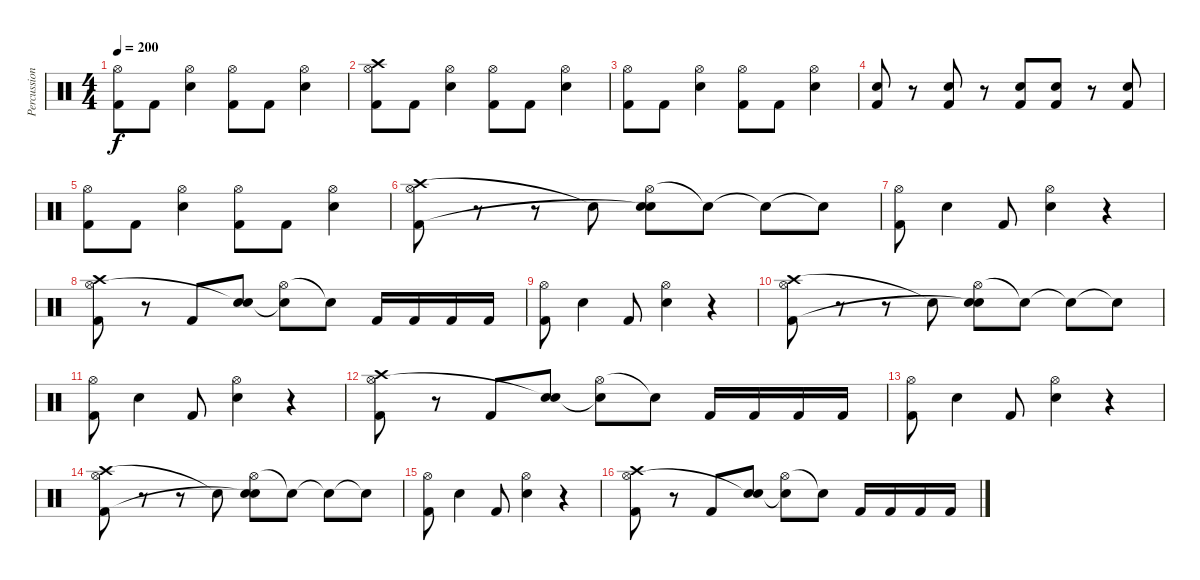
\track ("Percussion" "Percussion") {instrument percussion}
\staff {score}
\articulation defaults
\ts (4 4)
\tempo 200
\clef neutral
\ks c
("Hi-Hat (open)" "Kick (hit) 2").8{dy f} "Kick (hit) 2".8 ("Hi-Hat (open)" "Electric Snare (hit)").4 ("Hi-Hat (open)" "Kick (hit) 2").8 "Kick (hit) 2".8 ("Hi-Hat (open)" "Electric Snare (hit)").4 |
("Hi-Hat (open)" "Crash high (hit)" "Kick (hit) 2").8 "Kick (hit) 2".8 ("Hi-Hat (open)" "Electric Snare (hit)").4 ("Hi-Hat (open)" "Kick (hit) 2").8 "Kick (hit) 2".8 ("Hi-Hat (open)" "Electric Snare (hit)").4 |
("Hi-Hat (open)" "Kick (hit) 2").8 "Kick (hit) 2".8 ("Hi-Hat (open)" "Electric Snare (hit)").4 ("Hi-Hat (open)" "Kick (hit) 2").8 "Kick (hit) 2".8 ("Hi-Hat (open)" "Electric Snare (hit)").4 |
("Electric Snare (hit)" "Kick (hit) 2").8 r.8 ("Electric Snare (hit)" "Kick (hit) 2").8 r.8 ("Electric Snare (hit)" "Kick (hit) 2").8 ("Electric Snare (hit)" "Kick (hit) 2").8 r.8 ("Electric Snare (hit)" "Kick (hit) 2").8 |
("Hi-Hat (open)" "Kick (hit) 2").8 "Kick (hit) 2".8 ("Hi-Hat (open)" "Electric Snare (hit)").4 ("Hi-Hat (open)" "Kick (hit) 2").8 "Kick (hit) 2".8 ("Hi-Hat (open)" "Electric Snare (hit)").4 |
("Crash high (hit)" "Hi-Hat (open)" "Kick (hit) 2").8 r.8 r.8 "Electric Snare (hit)"{t}.8 ("Hi-Hat (open)" "Electric Snare (hit)" "Snare (hit)"{t}).8 "Snare (hit)"{t}.8 "Snare (hit)"{t}.8 "Snare (hit)"{t}.8 |
("Hi-Hat (open)" "Kick (hit) 2").8 "Electric Snare (hit)".4 "Kick (hit) 2".8 ("Hi-Hat (open)" "Electric Snare (hit)").4 r.4 |
("Crash high (hit)" "Hi-Hat (open)" "Kick (hit) 2").8 r.8 "Kick (hit) 2".8 ("Electric Snare (hit)" "Electric Snare (hit)"{t}).8 ("Hi-Hat (open)" "Snare (hit)"{t}).8 "Snare (hit)"{t}.8 "Kick (hit) 2".16 "Kick (hit) 2".16 "Kick (hit) 2".16 "Kick (hit) 2".16 |
("Hi-Hat (open)" "Kick (hit) 2").8 "Electric Snare (hit)".4 "Kick (hit) 2".8 ("Hi-Hat (open)" "Electric Snare (hit)").4 r.4 |
("Crash high (hit)" "Hi-Hat (open)" "Kick (hit) 2").8 r.8 r.8 "Electric Snare (hit)"{t}.8 ("Hi-Hat (open)" "Electric Snare (hit)" "Snare (hit)"{t}).8 "Snare (hit)"{t}.8 "Snare (hit)"{t}.8 "Snare (hit)"{t}.8 |
("Hi-Hat (open)" "Kick (hit) 2").8 "Electric Snare (hit)".4 "Kick (hit) 2".8 ("Hi-Hat (open)" "Electric Snare (hit)").4 r.4 |
("Crash high (hit)" "Hi-Hat (open)" "Kick (hit) 2").8 r.8 "Kick (hit) 2".8 ("Electric Snare (hit)" "Electric Snare (hit)"{t}).8 ("Hi-Hat (open)" "Snare (hit)"{t}).8 "Snare (hit)"{t}.8 "Kick (hit) 2".16 "Kick (hit) 2".16 "Kick (hit) 2".16 "Kick (hit) 2".16 |
("Hi-Hat (open)" "Kick (hit) 2").8 "Electric Snare (hit)".4 "Kick (hit) 2".8 ("Hi-Hat (open)" "Electric Snare (hit)").4 r.4 |
("Crash high (hit)" "Hi-Hat (open)" "Kick (hit) 2").8 r.8 r.8 "Electric Snare (hit)"{t}.8 ("Hi-Hat (open)" "Electric Snare (hit)" "Snare (hit)"{t}).8 "Snare (hit)"{t}.8 "Snare (hit)"{t}.8 "Snare (hit)"{t}.8 |
("Hi-Hat (open)" "Kick (hit) 2").8 "Electric Snare (hit)".4 "Kick (hit) 2".8 ("Hi-Hat (open)" "Electric Snare (hit)").4 r.4 |
("Crash high (hit)" "Hi-Hat (open)" "Kick (hit) 2").8 r.8 "Kick (hit) 2".8 ("Electric Snare (hit)" "Electric Snare (hit)"{t}).8 ("Hi-Hat (open)" "Snare (hit)"{t}).8 "Snare (hit)"{t}.8 "Kick (hit) 2".16 "Kick (hit) 2".16 "Kick (hit) 2".16 "Kick (hit) 2".16
